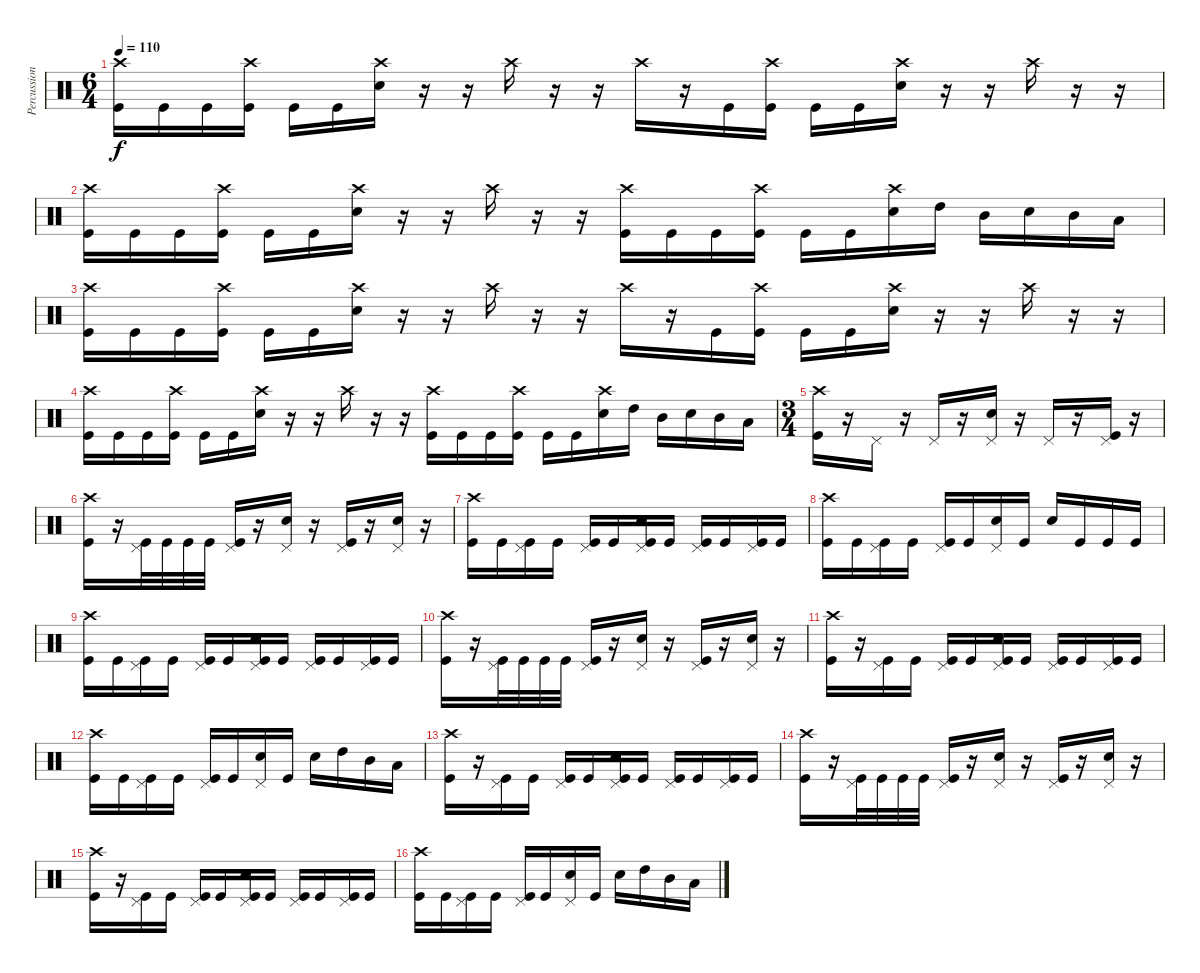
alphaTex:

\track ("Percussion" "Percussion") {instrument percussion}
\staff {score}
\articulation defaults
\ts (6 4)
\tempo 110
\clef neutral
\ks c
("Crash high (hit)" "Kick (hit)").16{dy f} "Kick (hit)".16 "Kick (hit)".16 ("Crash high (hit)" "Kick (hit)").16 "Kick (hit)".16 "Kick (hit)".16 ("Crash high (hit)" "Electric Snare (hit)").16 r.16 r.16 "Crash high (hit)".16 r.16 r.16 "Crash high (hit)".16 r.16 "Kick (hit)".16 ("Crash high (hit)" "Kick (hit)").16 "Kick (hit)".16 "Kick (hit)".16 ("Crash high (hit)" "Electric Snare (hit)").16 r.16 r.16 "Crash high (hit)".16 r.16 r.16 |
("Crash high (hit)" "Kick (hit)").16 "Kick (hit)".16 "Kick (hit)".16 ("Crash high (hit)" "Kick (hit)").16 "Kick (hit)".16 "Kick (hit)".16 ("Crash high (hit)" "Electric Snare (hit)").16 r.16 r.16 "Crash high (hit)".16 r.16 r.16 ("Crash high (hit)" "Kick (hit)").16 "Kick (hit)".16 "Kick (hit)".16 ("Crash high (hit)" "Kick (hit)").16 "Kick (hit)".16 "Kick (hit)".16 ("Crash high (hit)" "Electric Snare (hit)").16 "High Tom (hit)".16 "Mid Tom (hit)".16 "Electric Snare (hit)".16 "Mid Tom (hit)".16 "Low Tom (hit)".16 |
("Crash high (hit)" "Kick (hit)").16 "Kick (hit)".16 "Kick (hit)".16 ("Crash high (hit)" "Kick (hit)").16 "Kick (hit)".16 "Kick (hit)".16 ("Crash high (hit)" "Electric Snare (hit)").16 r.16 r.16 "Crash high (hit)".16 r.16 r.16 "Crash high (hit)".16 r.16 "Kick (hit)".16 ("Crash high (hit)" "Kick (hit)").16 "Kick (hit)".16 "Kick (hit)".16 ("Crash high (hit)" "Electric Snare (hit)").16 r.16 r.16 "Crash high (hit)".16 r.16 r.16 |
("Crash high (hit)" "Kick (hit)").16 "Kick (hit)".16 "Kick (hit)".16 ("Crash high (hit)" "Kick (hit)").16 "Kick (hit)".16 "Kick (hit)".16 ("Crash high (hit)" "Electric Snare (hit)").16 r.16 r.16 "Crash high (hit)".16 r.16 r.16 ("Crash high (hit)" "Kick (hit)").16 "Kick (hit)".16 "Kick (hit)".16 ("Crash high (hit)" "Kick (hit)").16 "Kick (hit)".16 "Kick (hit)".16 ("Crash high (hit)" "Electric Snare (hit)").16 "High Tom (hit)".16 "Mid Tom (hit)".16 "Electric Snare (hit)".16 "Mid Tom (hit)".16 "Low Tom (hit)".16 |
\ts (3 4)
("Crash high (hit)" "Kick (hit)").16 r.16 "Pedal Hi-Hat (hit)".16 r.16 "Pedal Hi-Hat (hit)".16 r.16 ("Pedal Hi-Hat (hit)" "Electric Snare (hit)").16 r.16 "Pedal Hi-Hat (hit)".16 r.16 ("Pedal Hi-Hat (hit)" "Kick (hit)").16 r.16 |
("Crash high (hit)" "Kick (hit)").16 r.16 ("Pedal Hi-Hat (hit)" "Kick (hit)").32 "Kick (hit)".32 "Kick (hit)".32 "Kick (hit)".32 ("Pedal Hi-Hat (hit)" "Kick (hit)").16 r.16 ("Pedal Hi-Hat (hit)" "Electric Snare (hit)").16 r.16 ("Pedal Hi-Hat (hit)" "Kick (hit)").16 r.16 ("Pedal Hi-Hat (hit)" "Electric Snare (hit)").16 r.16 |
("Crash high (hit)" "Kick (hit)").16 "Kick (hit)".16 ("Pedal Hi-Hat (hit)" "Kick (hit)").16 "Kick (hit)".16 ("Pedal Hi-Hat (hit)" "Kick (hit)").16 "Kick (hit)".16 ("Electric Snare (hit)" "Pedal Hi-Hat (hit)" "Kick (hit)").16 "Kick (hit)".16 ("Pedal Hi-Hat (hit)" "Kick (hit)").16 "Kick (hit)".16 ("Pedal Hi-Hat (hit)" "Kick (hit)").16 "Kick (hit)".16 |
("Crash high (hit)" "Kick (hit)").16 "Kick (hit)".16 ("Pedal Hi-Hat (hit)" "Kick (hit)").16 "Kick (hit)".16 ("Pedal Hi-Hat (hit)" "Kick (hit)").16 "Kick (hit)".16 ("Pedal Hi-Hat (hit)" "Electric Snare (hit)").16 "Kick (hit)".16 "Electric Snare (hit)".16 "Kick (hit)".16 "Kick (hit)".16 "Kick (hit)".16 |
("Crash high (hit)" "Kick (hit)").16 "Kick (hit)".16 ("Pedal Hi-Hat (hit)" "Kick (hit)").16 "Kick (hit)".16 ("Pedal Hi-Hat (hit)" "Kick (hit)").16 "Kick (hit)".16 ("Electric Snare (hit)" "Pedal Hi-Hat (hit)" "Kick (hit)").16 "Kick (hit)".16 ("Pedal Hi-Hat (hit)" "Kick (hit)").16 "Kick (hit)".16 ("Pedal Hi-Hat (hit)" "Kick (hit)").16 "Kick (hit)".16 |
("Crash high (hit)" "Kick (hit)").16 r.16 ("Pedal Hi-Hat (hit)" "Kick (hit)").32 "Kick (hit)".32 "Kick (hit)".32 "Kick (hit)".32 ("Pedal Hi-Hat (hit)" "Kick (hit)").16 r.16 ("Pedal Hi-Hat (hit)" "Electric Snare (hit)").16 r.16 ("Pedal Hi-Hat (hit)" "Kick (hit)").16 r.16 ("Pedal Hi-Hat (hit)" "Electric Snare (hit)").16 r.16 |
("Crash high (hit)" "Kick (hit)").16 r.16 ("Pedal Hi-Hat (hit)" "Kick (hit)").16 "Kick (hit)".16 ("Pedal Hi-Hat (hit)" "Kick (hit)").16 "Kick (hit)".16 ("Electric Snare (hit)" "Pedal Hi-Hat (hit)" "Kick (hit)").16 "Kick (hit)".16 ("Pedal Hi-Hat (hit)" "Kick (hit)").16 "Kick (hit)".16 ("Pedal Hi-Hat (hit)" "Kick (hit)").16 "Kick (hit)".16 |
("Crash high (hit)" "Kick (hit)").16 "Kick (hit)".16 ("Pedal Hi-Hat (hit)" "Kick (hit)").16 "Kick (hit)".16 ("Pedal Hi-Hat (hit)" "Kick (hit)").16 "Kick (hit)".16 ("Pedal Hi-Hat (hit)" "Electric Snare (hit)").16 "Kick (hit)".16 "Electric Snare (hit)".16 "High Tom (hit)".16 "Mid Tom (hit)".16 "Low Tom (hit)".16 |
("Crash high (hit)" "Kick (hit)").16 r.16 ("Pedal Hi-Hat (hit)" "Kick (hit)").16 "Kick (hit)".16 ("Pedal Hi-Hat (hit)" "Kick (hit)").16 "Kick (hit)".16 ("Electric Snare (hit)" "Pedal Hi-Hat (hit)" "Kick (hit)").16 "Kick (hit)".16 ("Pedal Hi-Hat (hit)" "Kick (hit)").16 "Kick (hit)".16 ("Pedal Hi-Hat (hit)" "Kick (hit)").16 "Kick (hit)".16 |
("Crash high (hit)" "Kick (hit)").16 r.16 ("Pedal Hi-Hat (hit)" "Kick (hit)").32 "Kick (hit)".32 "Kick (hit)".32 "Kick (hit)".32 ("Pedal Hi-Hat (hit)" "Kick (hit)").16 r.16 ("Pedal Hi-Hat (hit)" "Electric Snare (hit)").16 r.16 ("Pedal Hi-Hat (hit)" "Kick (hit)").16 r.16 ("Pedal Hi-Hat (hit)" "Electric Snare (hit)").16 r.16 |
("Crash high (hit)" "Kick (hit)").16 r.16 ("Pedal Hi-Hat (hit)" "Kick (hit)").16 "Kick (hit)".16 ("Pedal Hi-Hat (hit)" "Kick (hit)").16 "Kick (hit)".16 ("Electric Snare (hit)" "Pedal Hi-Hat (hit)" "Kick (hit)").16 "Kick (hit)".16 ("Pedal Hi-Hat (hit)" "Kick (hit)").16 "Kick (hit)".16 ("Pedal Hi-Hat (hit)" "Kick (hit)").16 "Kick (hit)".16 |
("Crash high (hit)" "Kick (hit)").16 "Kick (hit)".16 ("Pedal Hi-Hat (hit)" "Kick (hit)").16 "Kick (hit)".16 ("Pedal Hi-Hat (hit)" "Kick (hit)").16 "Kick (hit)".16 ("Pedal Hi-Hat (hit)" "Electric Snare (hit)").16 "Kick (hit)".16 "Electric Snare (hit)".16 "High Tom (hit)".16 "Mid Tom (hit)".16 "Low Tom (hit)".16
